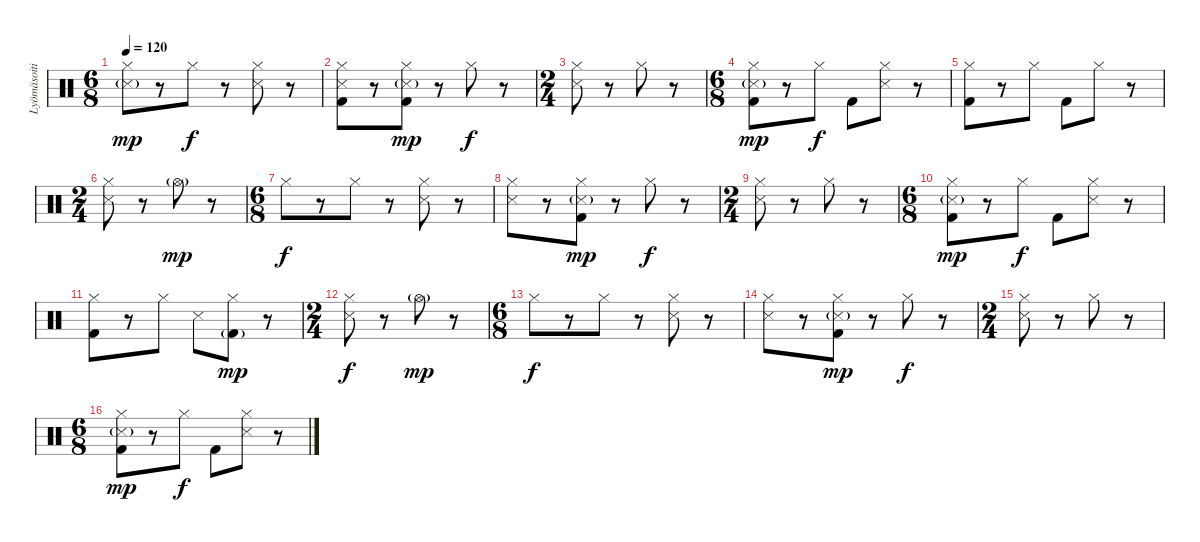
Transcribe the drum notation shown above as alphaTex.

\track ("Lyömäsoitin" "Lyömäsoiti") {instrument percussion}
\staff {score}
\articulation defaults
\ts (6 8)
\tempo 120
\clef neutral
\ks c
("Hi-Hat (closed)" "Snare (side stick) 3"{g}).8{dy mp} r.8 "Hi-Hat (closed)".8{dy f} r.8 ("Hi-Hat (closed)" "Snare (side stick) 3").8 r.8 |
("Hi-Hat (closed)" "Snare (side stick) 3" "Kick (hit) 2").8 r.8 ("Hi-Hat (closed)" "Snare (side stick) 3"{g} "Kick (hit) 2").8{dy mp} r.8 "Hi-Hat (closed)".8{dy f} r.8 |
\ts (2 4)
("Hi-Hat (closed)" "Snare (side stick) 3").8 r.8 "Hi-Hat (closed)".8 r.8 |
\ts (6 8)
("Hi-Hat (closed)" "Snare (side stick) 3"{g} "Kick (hit) 2").8{dy mp} r.8 "Hi-Hat (closed)".8{dy f} "Kick (hit) 2".8 ("Hi-Hat (closed)" "Snare (side stick) 3").8 r.8 |
("Hi-Hat (closed)" "Kick (hit) 2").8 r.8 "Hi-Hat (closed)".8 "Kick (hit) 2".8 "Hi-Hat (closed)".8 r.8 |
\ts (2 4)
("Hi-Hat (closed)" "Snare (side stick) 3").8 r.8 "Hi-Hat (open)"{g}.8{dy mp} r.8 |
\ts (6 8)
"Hi-Hat (closed)".8{dy f} r.8 "Hi-Hat (closed)".8 r.8 ("Hi-Hat (closed)" "Snare (side stick) 3").8 r.8 |
("Hi-Hat (closed)" "Snare (side stick) 3").8 r.8 ("Hi-Hat (closed)" "Snare (side stick) 3"{g} "Kick (hit) 2").8{dy mp} r.8 "Hi-Hat (closed)".8{dy f} r.8 |
\ts (2 4)
("Hi-Hat (closed)" "Snare (side stick) 3").8 r.8 "Hi-Hat (closed)".8 r.8 |
\ts (6 8)
("Hi-Hat (closed)" "Snare (side stick) 3"{g} "Kick (hit) 2").8{dy mp} r.8 "Hi-Hat (closed)".8{dy f} "Kick (hit) 2".8 ("Hi-Hat (closed)" "Snare (side stick) 3").8 r.8 |
("Hi-Hat (closed)" "Kick (hit) 2").8 r.8 "Hi-Hat (closed)".8 "Snare (side stick) 3".8 ("Hi-Hat (closed)" "Kick (hit) 2"{g}).8{dy mp} r.8 |
\ts (2 4)
("Hi-Hat (closed)" "Snare (side stick) 3").8{dy f} r.8 "Hi-Hat (open)"{g}.8{dy mp} r.8 |
\ts (6 8)
"Hi-Hat (closed)".8{dy f} r.8 "Hi-Hat (closed)".8 r.8 ("Hi-Hat (closed)" "Snare (side stick) 3").8 r.8 |
("Hi-Hat (closed)" "Snare (side stick) 3").8 r.8 ("Hi-Hat (closed)" "Snare (side stick) 3"{g} "Kick (hit) 2").8{dy mp} r.8 "Hi-Hat (closed)".8{dy f} r.8 |
\ts (2 4)
("Hi-Hat (closed)" "Snare (side stick) 3").8 r.8 "Hi-Hat (closed)".8 r.8 |
\ts (6 8)
("Hi-Hat (closed)" "Snare (side stick) 3"{g} "Kick (hit) 2").8{dy mp} r.8 "Hi-Hat (closed)".8{dy f} "Kick (hit) 2".8 ("Hi-Hat (closed)" "Snare (side stick) 3").8 r.8
